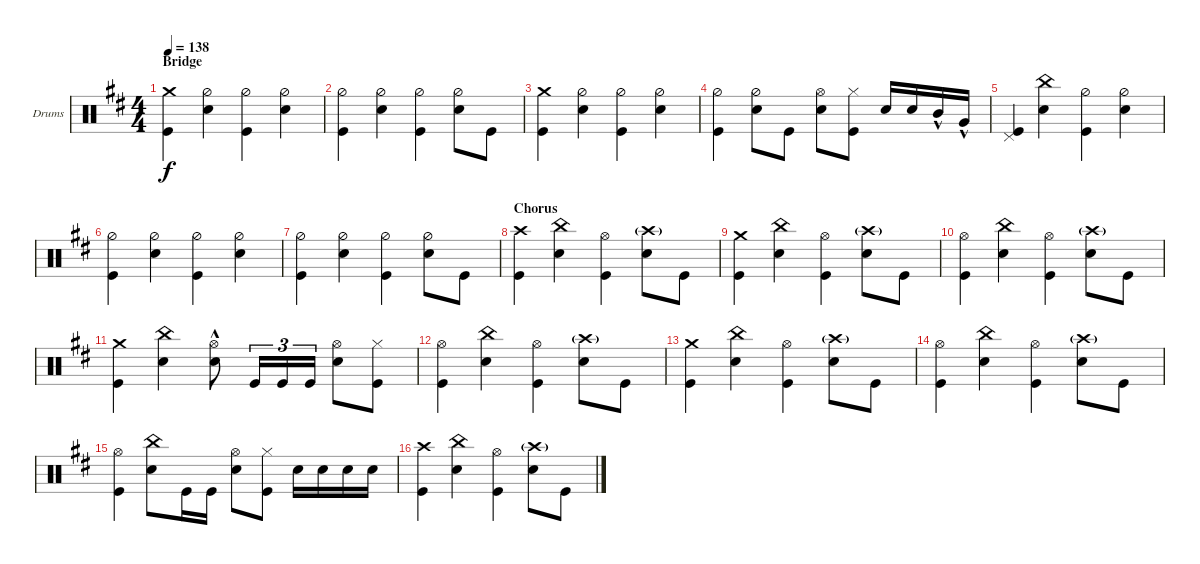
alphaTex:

\defaultSystemsLayout 4
\bracketExtendMode groupsimilarinstruments
\firstSystemTrackNameOrientation horizontal
\otherSystemsTrackNameOrientation horizontal
\track ("Drumkit" "Drums") {instrument percussion}
\staff {score}
\articulation defaults
\ts (4 4)
\section ("" "Bridge")
\tempo 138
\clef neutral
\ks d
("Kick (hit)" "Crash medium (hit)").4{dy f} ("Hi-Hat (half)" "Snare (hit) 2").4 ("Hi-Hat (half)" "Kick (hit)").4 ("Hi-Hat (half)" "Snare (hit) 2").4 |
("Kick (hit)" "Hi-Hat (half)").4 ("Hi-Hat (half)" "Snare (hit) 2").4 ("Hi-Hat (half)" "Kick (hit)").4 ("Hi-Hat (half)" "Snare (hit) 2").8 "Kick (hit)".8 |
("Kick (hit)" "Crash medium (hit)").4 ("Hi-Hat (half)" "Snare (hit) 2").4 ("Hi-Hat (half)" "Kick (hit)").4 ("Hi-Hat (half)" "Snare (hit) 2").4 |
("Kick (hit)" "Hi-Hat (half)").4 ("Hi-Hat (half)" "Snare (hit) 2").8 "Kick (hit)".8 ("Snare (hit) 2" "Hi-Hat (open)").8 ("Kick (hit)" "Hi-Hat (closed)").8 "Snare (hit) 2".16 "Snare (hit) 2".16 "Mid Tom (hit)"{hac}.16 "Very Low Tom (hit)"{hac}.16 |
("Kick (hit)" "Pedal Hi-Hat (hit)").4 ("Snare (hit) 2" "China (hit)").4 ("Hi-Hat (half)" "Kick (hit)").4 ("Hi-Hat (half)" "Snare (hit) 2").4 |
("Kick (hit)" "Hi-Hat (half)").4 ("Hi-Hat (half)" "Snare (hit) 2").4 ("Hi-Hat (half)" "Kick (hit)").4 ("Hi-Hat (half)" "Snare (hit) 2").4 |
("Kick (hit)" "Hi-Hat (half)").4 ("Hi-Hat (half)" "Snare (hit) 2").4 ("Hi-Hat (half)" "Kick (hit)").4 ("Hi-Hat (half)" "Snare (hit) 2").8 "Kick (hit)".8 |
\section ("" "Chorus")
("Kick (hit)" "Crash high (hit)").4 ("Snare (hit) 2" "China (hit)").4 ("Kick (hit)" "Hi-Hat (open)").4 ("Snare (hit) 2" "Crash high (hit)"{g}).8 "Kick (hit)".8 |
("Kick (hit)" "Crash medium (hit)").4 ("Snare (hit) 2" "China (hit)").4 ("Kick (hit)" "Hi-Hat (open)").4 ("Snare (hit) 2" "Crash high (hit)"{g}).8 "Kick (hit)".8 |
("Kick (hit)" "Hi-Hat (open)").4 ("Snare (hit) 2" "China (hit)").4 ("Kick (hit)" "Hi-Hat (open)").4 ("Snare (hit) 2" "Crash high (hit)"{g}).8 "Kick (hit)".8 |
("Kick (hit)" "Crash medium (hit)").4 ("Snare (hit) 2" "China (hit)").4 ("Snare (hit) 2"{hac} "Hi-Hat (open)").8 "Kick (hit)".16{tu (3 2)} "Kick (hit)".16{tu (3 2)} "Kick (hit)".16{tu (3 2)} ("Snare (hit) 2" "Hi-Hat (open)").8 ("Kick (hit)" "Hi-Hat (closed)").8 |
("Kick (hit)" "Hi-Hat (open)").4 ("Snare (hit) 2" "China (hit)").4 ("Kick (hit)" "Hi-Hat (open)").4 ("Snare (hit) 2" "Crash high (hit)"{g}).8 "Kick (hit)".8 |
("Kick (hit)" "Crash medium (hit)").4 ("Snare (hit) 2" "China (hit)").4 ("Kick (hit)" "Hi-Hat (open)").4 ("Snare (hit) 2" "Crash high (hit)"{g}).8 "Kick (hit)".8 |
("Kick (hit)" "Hi-Hat (open)").4 ("Snare (hit) 2" "China (hit)").4 ("Kick (hit)" "Hi-Hat (open)").4 ("Snare (hit) 2" "Crash high (hit)"{g}).8 "Kick (hit)".8 |
("Kick (hit)" "Hi-Hat (open)").4 ("Snare (hit) 2" "China (hit)").8 "Kick (hit)".16 "Kick (hit)".16 ("Snare (hit) 2" "Hi-Hat (open)").8 ("Kick (hit)" "Hi-Hat (closed)").8 "Snare (hit) 2".16 "Snare (hit) 2".16 "Snare (hit) 2".16 "Snare (hit) 2".16 |
("Kick (hit)" "Crash high (hit)").4 ("Snare (hit) 2" "China (hit)").4 ("Kick (hit)" "Hi-Hat (open)").4 ("Snare (hit) 2" "Crash high (hit)"{g}).8 "Kick (hit)".8
